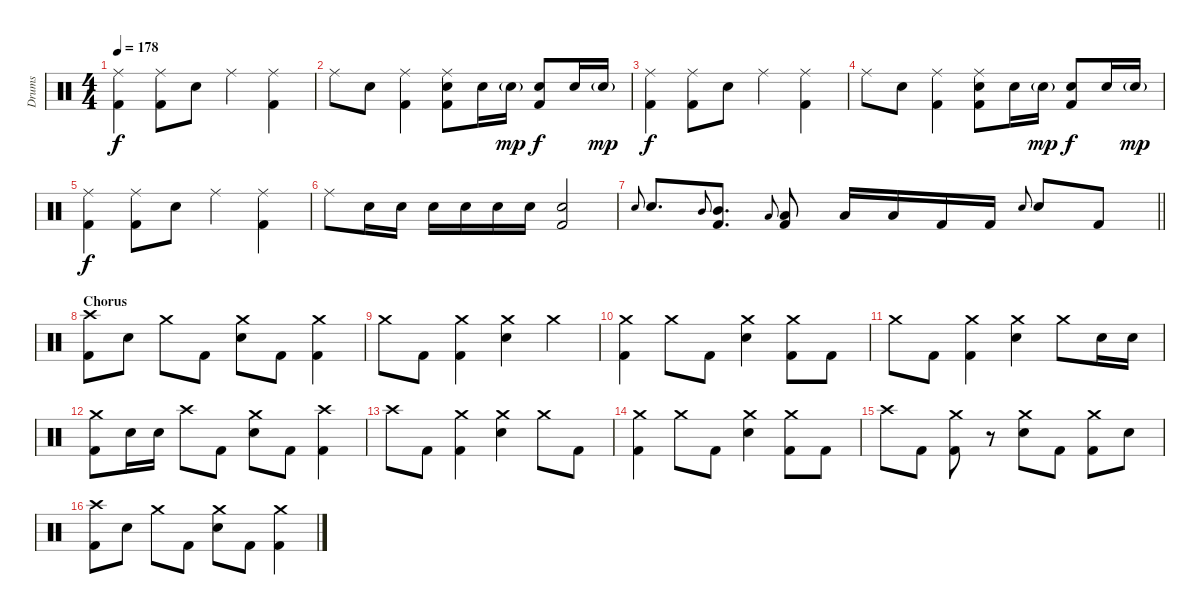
\track ("Drums" "Drums") {instrument percussion}
\staff {score}
\articulation defaults
\ts (4 4)
\tempo 178
\clef neutral
\ks c
("Ride (middle)" "Kick (hit) 2").4{dy f} ("Ride (middle)" "Kick (hit) 2").8 "Electric Snare (hit)".8 "Ride (middle)".4 ("Ride (middle)" "Kick (hit) 2").4 |
"Ride (middle)".8 "Electric Snare (hit)".8 ("Ride (middle)" "Kick (hit) 2").4 ("Ride (middle)" "Electric Snare (hit)" "Kick (hit) 2").8 "Electric Snare (hit)".16 "Electric Snare (hit)"{g}.16{dy mp} ("Electric Snare (hit)" "Kick (hit) 2").8{dy f} "Electric Snare (hit)".16 "Electric Snare (hit)"{g}.16{dy mp} |
("Ride (middle)" "Kick (hit) 2").4{dy f} ("Ride (middle)" "Kick (hit) 2").8 "Electric Snare (hit)".8 "Ride (middle)".4 ("Ride (middle)" "Kick (hit) 2").4 |
"Ride (middle)".8 "Electric Snare (hit)".8 ("Ride (middle)" "Kick (hit) 2").4 ("Ride (middle)" "Electric Snare (hit)" "Kick (hit) 2").8 "Electric Snare (hit)".16 "Electric Snare (hit)"{g}.16{dy mp} ("Electric Snare (hit)" "Kick (hit) 2").8{dy f} "Electric Snare (hit)".16 "Electric Snare (hit)"{g}.16{dy mp} |
("Ride (middle)" "Kick (hit) 2").4{dy f} ("Ride (middle)" "Kick (hit) 2").8 "Electric Snare (hit)".8 "Ride (middle)".4 ("Ride (middle)" "Kick (hit) 2").4 |
"Ride (middle)".8 "Electric Snare (hit)".16 "Electric Snare (hit)".16 "Electric Snare (hit)".16 "Electric Snare (hit)".16 "Electric Snare (hit)".16 "Electric Snare (hit)".16 ("Electric Snare (hit)" "Kick (hit) 2").2 |
\barLineRight lightlight "Electric Snare (hit)".8{gr onbeat} "Electric Snare (hit)".8{d} "Mid Tom (hit)".8{gr onbeat}
("Mid Tom (hit)" "Kick (hit) 2").8{d} "Low Tom (hit)".8{gr onbeat} ("Low Tom (hit)" "Kick (hit) 2").8 "Low Tom (hit)".16 "Low Tom (hit)".16 "Kick (hit) 2".16 "Kick (hit) 2".16 "Electric Snare (hit)".8{gr onbeat} "Electric Snare (hit)".8 "Kick (hit) 2".8 |
\section ("" "Chorus")
("Crash high (hit)" "Kick (hit) 2").8 "Electric Snare (hit)".8 "Crash medium (hit)".8 "Kick (hit) 2".8 ("Crash medium (hit)" "Electric Snare (hit)").8 "Kick (hit) 2".8 ("Crash medium (hit)" "Kick (hit) 2").4 |
"Crash medium (hit)".8 "Kick (hit) 2".8 ("Crash medium (hit)" "Kick (hit) 2").4 ("Crash medium (hit)" "Electric Snare (hit)").4 "Crash medium (hit)".4 |
("Crash medium (hit)" "Kick (hit) 2").4 "Crash medium (hit)".8 "Kick (hit) 2".8 ("Crash medium (hit)" "Electric Snare (hit)").4 ("Crash medium (hit)" "Kick (hit) 2").8 "Kick (hit) 2".8 |
"Crash medium (hit)".8 "Kick (hit) 2".8 ("Crash medium (hit)" "Kick (hit) 2").4 ("Crash medium (hit)" "Electric Snare (hit)").4 "Crash medium (hit)".8 "Electric Snare (hit)".16 "Electric Snare (hit)".16 |
("Crash medium (hit)" "Kick (hit) 2").8 "Electric Snare (hit)".16 "Electric Snare (hit)".16 "Crash high (hit)".8 "Kick (hit) 2".8 ("Crash medium (hit)" "Electric Snare (hit)").8 "Kick (hit) 2".8 ("Crash high (hit)" "Kick (hit) 2").4 |
"Crash high (hit)".8 "Kick (hit) 2".8 ("Crash medium (hit)" "Kick (hit) 2").4 ("Crash medium (hit)" "Electric Snare (hit)").4 "Crash medium (hit)".8 "Kick (hit) 2".8 |
("Crash medium (hit)" "Kick (hit) 2").4 "Crash medium (hit)".8 "Kick (hit) 2".8 ("Crash medium (hit)" "Electric Snare (hit)").4 ("Crash medium (hit)" "Kick (hit) 2").8 "Kick (hit) 2".8 |
"Crash high (hit)".8 "Kick (hit) 2".8 ("Crash medium (hit)" "Kick (hit) 2").8 r.8 ("Crash medium (hit)" "Electric Snare (hit)").8 "Kick (hit) 2".8 ("Crash medium (hit)" "Kick (hit) 2").8 "Electric Snare (hit)".8 |
("Crash high (hit)" "Kick (hit) 2").8 "Electric Snare (hit)".8 "Crash medium (hit)".8 "Kick (hit) 2".8 ("Crash medium (hit)" "Electric Snare (hit)").8 "Kick (hit) 2".8 ("Crash medium (hit)" "Kick (hit) 2").4
